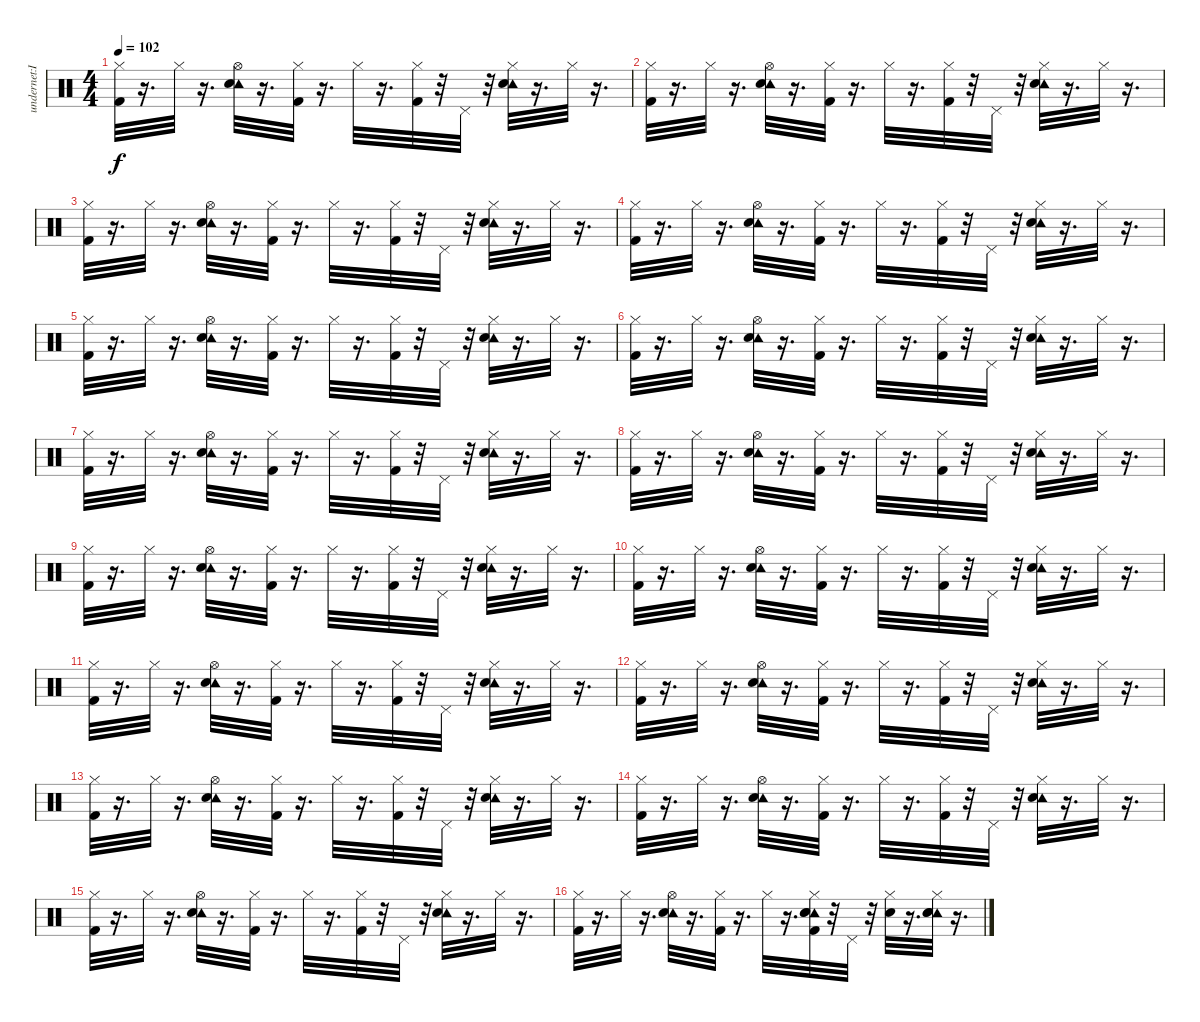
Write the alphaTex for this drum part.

\track ("undernet:IRC:bong21" "undernet:I") {instrument percussion}
\staff {score}
\articulation defaults
\ts (4 4)
\tempo 102
\clef neutral
\ks c
("Hi-Hat (closed)" "Kick (hit) 2").32{dy f} r.16{d} "Hi-Hat (closed)".32 r.16{d} ("Tambourine (hit)" "Hi-Hat (open)" "Electric Snare (hit)").32 r.16{d} ("Hi-Hat (closed)" "Kick (hit) 2").32 r.16{d} "Hi-Hat (closed)".32 r.16{d} ("Hi-Hat (closed)" "Kick (hit) 2").32 r.32 "Pedal Hi-Hat (hit)".32 r.32 ("Tambourine (hit)" "Hi-Hat (closed)" "Electric Snare (hit)").32 r.16{d} "Hi-Hat (closed)".32 r.16{d} |
("Hi-Hat (closed)" "Kick (hit) 2").32 r.16{d} "Hi-Hat (closed)".32 r.16{d} ("Tambourine (hit)" "Hi-Hat (open)" "Electric Snare (hit)").32 r.16{d} ("Hi-Hat (closed)" "Kick (hit) 2").32 r.16{d} "Hi-Hat (closed)".32 r.16{d} ("Hi-Hat (closed)" "Kick (hit) 2").32 r.32 "Pedal Hi-Hat (hit)".32 r.32 ("Tambourine (hit)" "Hi-Hat (closed)" "Electric Snare (hit)").32 r.16{d} "Hi-Hat (closed)".32 r.16{d} |
("Hi-Hat (closed)" "Kick (hit) 2").32 r.16{d} "Hi-Hat (closed)".32 r.16{d} ("Tambourine (hit)" "Hi-Hat (open)" "Electric Snare (hit)").32 r.16{d} ("Hi-Hat (closed)" "Kick (hit) 2").32 r.16{d} "Hi-Hat (closed)".32 r.16{d} ("Hi-Hat (closed)" "Kick (hit) 2").32 r.32 "Pedal Hi-Hat (hit)".32 r.32 ("Tambourine (hit)" "Hi-Hat (closed)" "Electric Snare (hit)").32 r.16{d} "Hi-Hat (closed)".32 r.16{d} |
("Hi-Hat (closed)" "Kick (hit) 2").32 r.16{d} "Hi-Hat (closed)".32 r.16{d} ("Tambourine (hit)" "Hi-Hat (open)" "Electric Snare (hit)").32 r.16{d} ("Hi-Hat (closed)" "Kick (hit) 2").32 r.16{d} "Hi-Hat (closed)".32 r.16{d} ("Hi-Hat (closed)" "Kick (hit) 2").32 r.32 "Pedal Hi-Hat (hit)".32 r.32 ("Tambourine (hit)" "Hi-Hat (closed)" "Electric Snare (hit)").32 r.16{d} "Hi-Hat (closed)".32 r.16{d} |
("Hi-Hat (closed)" "Kick (hit) 2").32 r.16{d} "Hi-Hat (closed)".32 r.16{d} ("Tambourine (hit)" "Hi-Hat (open)" "Electric Snare (hit)").32 r.16{d} ("Hi-Hat (closed)" "Kick (hit) 2").32 r.16{d} "Hi-Hat (closed)".32 r.16{d} ("Hi-Hat (closed)" "Kick (hit) 2").32 r.32 "Pedal Hi-Hat (hit)".32 r.32 ("Tambourine (hit)" "Hi-Hat (closed)" "Electric Snare (hit)").32 r.16{d} "Hi-Hat (closed)".32 r.16{d} |
("Hi-Hat (closed)" "Kick (hit) 2").32 r.16{d} "Hi-Hat (closed)".32 r.16{d} ("Tambourine (hit)" "Hi-Hat (open)" "Electric Snare (hit)").32 r.16{d} ("Hi-Hat (closed)" "Kick (hit) 2").32 r.16{d} "Hi-Hat (closed)".32 r.16{d} ("Hi-Hat (closed)" "Kick (hit) 2").32 r.32 "Pedal Hi-Hat (hit)".32 r.32 ("Tambourine (hit)" "Hi-Hat (closed)" "Electric Snare (hit)").32 r.16{d} "Hi-Hat (closed)".32 r.16{d} |
("Hi-Hat (closed)" "Kick (hit) 2").32 r.16{d} "Hi-Hat (closed)".32 r.16{d} ("Tambourine (hit)" "Hi-Hat (open)" "Electric Snare (hit)").32 r.16{d} ("Hi-Hat (closed)" "Kick (hit) 2").32 r.16{d} "Hi-Hat (closed)".32 r.16{d} ("Hi-Hat (closed)" "Kick (hit) 2").32 r.32 "Pedal Hi-Hat (hit)".32 r.32 ("Tambourine (hit)" "Hi-Hat (closed)" "Electric Snare (hit)").32 r.16{d} "Hi-Hat (closed)".32 r.16{d} |
("Hi-Hat (closed)" "Kick (hit) 2").32 r.16{d} "Hi-Hat (closed)".32 r.16{d} ("Tambourine (hit)" "Hi-Hat (open)" "Electric Snare (hit)").32 r.16{d} ("Hi-Hat (closed)" "Kick (hit) 2").32 r.16{d} "Hi-Hat (closed)".32 r.16{d} ("Hi-Hat (closed)" "Kick (hit) 2").32 r.32 "Pedal Hi-Hat (hit)".32 r.32 ("Tambourine (hit)" "Hi-Hat (closed)" "Electric Snare (hit)").32 r.16{d} "Hi-Hat (closed)".32 r.16{d} |
("Hi-Hat (closed)" "Kick (hit) 2").32 r.16{d} "Hi-Hat (closed)".32 r.16{d} ("Tambourine (hit)" "Hi-Hat (open)" "Electric Snare (hit)").32 r.16{d} ("Hi-Hat (closed)" "Kick (hit) 2").32 r.16{d} "Hi-Hat (closed)".32 r.16{d} ("Hi-Hat (closed)" "Kick (hit) 2").32 r.32 "Pedal Hi-Hat (hit)".32 r.32 ("Tambourine (hit)" "Hi-Hat (closed)" "Electric Snare (hit)").32 r.16{d} "Hi-Hat (closed)".32 r.16{d} |
("Hi-Hat (closed)" "Kick (hit) 2").32 r.16{d} "Hi-Hat (closed)".32 r.16{d} ("Tambourine (hit)" "Hi-Hat (open)" "Electric Snare (hit)").32 r.16{d} ("Hi-Hat (closed)" "Kick (hit) 2").32 r.16{d} "Hi-Hat (closed)".32 r.16{d} ("Hi-Hat (closed)" "Kick (hit) 2").32 r.32 "Pedal Hi-Hat (hit)".32 r.32 ("Tambourine (hit)" "Hi-Hat (closed)" "Electric Snare (hit)").32 r.16{d} "Hi-Hat (closed)".32 r.16{d} |
("Hi-Hat (closed)" "Kick (hit) 2").32 r.16{d} "Hi-Hat (closed)".32 r.16{d} ("Tambourine (hit)" "Hi-Hat (open)" "Electric Snare (hit)").32 r.16{d} ("Hi-Hat (closed)" "Kick (hit) 2").32 r.16{d} "Hi-Hat (closed)".32 r.16{d} ("Hi-Hat (closed)" "Kick (hit) 2").32 r.32 "Pedal Hi-Hat (hit)".32 r.32 ("Tambourine (hit)" "Hi-Hat (closed)" "Electric Snare (hit)").32 r.16{d} "Hi-Hat (closed)".32 r.16{d} |
("Hi-Hat (closed)" "Kick (hit) 2").32 r.16{d} "Hi-Hat (closed)".32 r.16{d} ("Tambourine (hit)" "Hi-Hat (open)" "Electric Snare (hit)").32 r.16{d} ("Hi-Hat (closed)" "Kick (hit) 2").32 r.16{d} "Hi-Hat (closed)".32 r.16{d} ("Hi-Hat (closed)" "Kick (hit) 2").32 r.32 "Pedal Hi-Hat (hit)".32 r.32 ("Tambourine (hit)" "Hi-Hat (closed)" "Electric Snare (hit)").32 r.16{d} "Hi-Hat (closed)".32 r.16{d} |
("Hi-Hat (closed)" "Kick (hit) 2").32 r.16{d} "Hi-Hat (closed)".32 r.16{d} ("Tambourine (hit)" "Hi-Hat (open)" "Electric Snare (hit)").32 r.16{d} ("Hi-Hat (closed)" "Kick (hit) 2").32 r.16{d} "Hi-Hat (closed)".32 r.16{d} ("Hi-Hat (closed)" "Kick (hit) 2").32 r.32 "Pedal Hi-Hat (hit)".32 r.32 ("Tambourine (hit)" "Hi-Hat (closed)" "Electric Snare (hit)").32 r.16{d} "Hi-Hat (closed)".32 r.16{d} |
("Hi-Hat (closed)" "Kick (hit) 2").32 r.16{d} "Hi-Hat (closed)".32 r.16{d} ("Tambourine (hit)" "Hi-Hat (open)" "Electric Snare (hit)").32 r.16{d} ("Hi-Hat (closed)" "Kick (hit) 2").32 r.16{d} "Hi-Hat (closed)".32 r.16{d} ("Hi-Hat (closed)" "Kick (hit) 2").32 r.32 "Pedal Hi-Hat (hit)".32 r.32 ("Tambourine (hit)" "Hi-Hat (closed)" "Electric Snare (hit)").32 r.16{d} "Hi-Hat (closed)".32 r.16{d} |
("Hi-Hat (closed)" "Kick (hit) 2").32 r.16{d} "Hi-Hat (closed)".32 r.16{d} ("Tambourine (hit)" "Hi-Hat (open)" "Electric Snare (hit)").32 r.16{d} ("Hi-Hat (closed)" "Kick (hit) 2").32 r.16{d} "Hi-Hat (closed)".32 r.16{d} ("Hi-Hat (closed)" "Kick (hit) 2").32 r.32 "Pedal Hi-Hat (hit)".32 r.32 ("Tambourine (hit)" "Hi-Hat (closed)" "Electric Snare (hit)").32 r.16{d} "Hi-Hat (closed)".32 r.16{d} |
("Hi-Hat (closed)" "Kick (hit) 2").32 r.16{d} "Hi-Hat (closed)".32 r.16{d} ("Tambourine (hit)" "Hi-Hat (open)" "Electric Snare (hit)").32 r.16{d} ("Hi-Hat (closed)" "Kick (hit) 2").32 r.16{d} "Hi-Hat (closed)".32 r.16{d} ("Tambourine (hit)" "Electric Snare (hit)" "Snare (hit) 2" "Hi-Hat (closed)" "Kick (hit) 2").32 r.32 "Pedal Hi-Hat (hit)".32 r.32 ("Hi-Hat (closed)" "Electric Snare (hit)").32 r.16{d} ("Tambourine (hit)" "Electric Snare (hit)" "Snare (hit) 2" "Hi-Hat (closed)").32 r.16{d}
